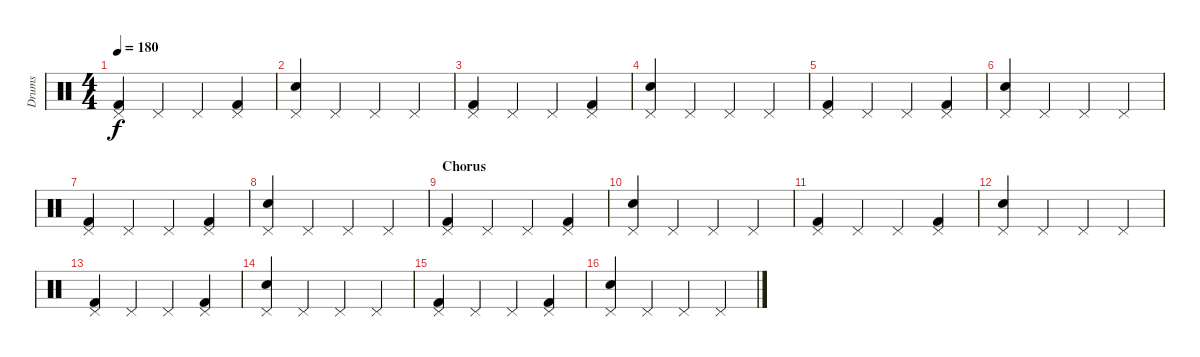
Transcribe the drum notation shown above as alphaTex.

\track ("Drums" "Drums") {instrument percussion}
\staff {score}
\articulation defaults
\ts (4 4)
\tempo 180
\clef neutral
\ks c
("Kick (hit) 2" "Pedal Hi-Hat (hit)").4{dy f} "Pedal Hi-Hat (hit)".4 "Pedal Hi-Hat (hit)".4 ("Kick (hit) 2" "Pedal Hi-Hat (hit)").4 |
("Electric Snare (hit)" "Pedal Hi-Hat (hit)").4 "Pedal Hi-Hat (hit)".4 "Pedal Hi-Hat (hit)".4 "Pedal Hi-Hat (hit)".4 |
("Kick (hit) 2" "Pedal Hi-Hat (hit)").4 "Pedal Hi-Hat (hit)".4 "Pedal Hi-Hat (hit)".4 ("Kick (hit) 2" "Pedal Hi-Hat (hit)").4 |
("Electric Snare (hit)" "Pedal Hi-Hat (hit)").4 "Pedal Hi-Hat (hit)".4 "Pedal Hi-Hat (hit)".4 "Pedal Hi-Hat (hit)".4 |
("Kick (hit) 2" "Pedal Hi-Hat (hit)").4 "Pedal Hi-Hat (hit)".4 "Pedal Hi-Hat (hit)".4 ("Kick (hit) 2" "Pedal Hi-Hat (hit)").4 |
("Electric Snare (hit)" "Pedal Hi-Hat (hit)").4 "Pedal Hi-Hat (hit)".4 "Pedal Hi-Hat (hit)".4 "Pedal Hi-Hat (hit)".4 |
("Kick (hit) 2" "Pedal Hi-Hat (hit)").4 "Pedal Hi-Hat (hit)".4 "Pedal Hi-Hat (hit)".4 ("Kick (hit) 2" "Pedal Hi-Hat (hit)").4 |
("Electric Snare (hit)" "Pedal Hi-Hat (hit)").4 "Pedal Hi-Hat (hit)".4 "Pedal Hi-Hat (hit)".4 "Pedal Hi-Hat (hit)".4 |
\section ("" "Chorus")
("Kick (hit) 2" "Pedal Hi-Hat (hit)").4 "Pedal Hi-Hat (hit)".4 "Pedal Hi-Hat (hit)".4 ("Kick (hit) 2" "Pedal Hi-Hat (hit)").4 |
("Electric Snare (hit)" "Pedal Hi-Hat (hit)").4 "Pedal Hi-Hat (hit)".4 "Pedal Hi-Hat (hit)".4 "Pedal Hi-Hat (hit)".4 |
("Kick (hit) 2" "Pedal Hi-Hat (hit)").4 "Pedal Hi-Hat (hit)".4 "Pedal Hi-Hat (hit)".4 ("Kick (hit) 2" "Pedal Hi-Hat (hit)").4 |
("Electric Snare (hit)" "Pedal Hi-Hat (hit)").4 "Pedal Hi-Hat (hit)".4 "Pedal Hi-Hat (hit)".4 "Pedal Hi-Hat (hit)".4 |
("Kick (hit) 2" "Pedal Hi-Hat (hit)").4 "Pedal Hi-Hat (hit)".4 "Pedal Hi-Hat (hit)".4 ("Kick (hit) 2" "Pedal Hi-Hat (hit)").4 |
("Electric Snare (hit)" "Pedal Hi-Hat (hit)").4 "Pedal Hi-Hat (hit)".4 "Pedal Hi-Hat (hit)".4 "Pedal Hi-Hat (hit)".4 |
("Kick (hit) 2" "Pedal Hi-Hat (hit)").4 "Pedal Hi-Hat (hit)".4 "Pedal Hi-Hat (hit)".4 ("Kick (hit) 2" "Pedal Hi-Hat (hit)").4 |
("Electric Snare (hit)" "Pedal Hi-Hat (hit)").4 "Pedal Hi-Hat (hit)".4 "Pedal Hi-Hat (hit)".4 "Pedal Hi-Hat (hit)".4
